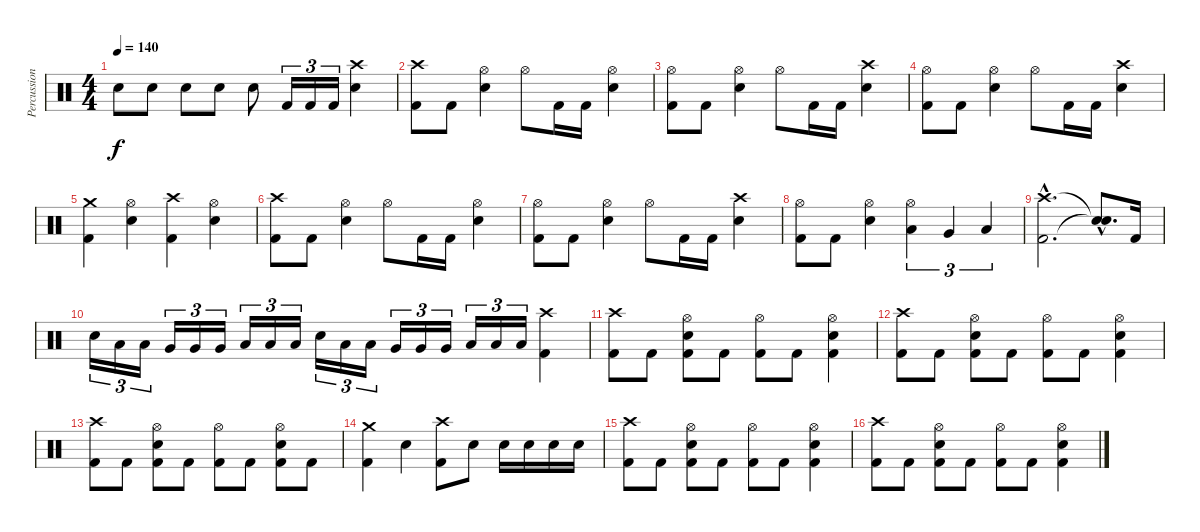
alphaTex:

\track ("Percussion" "Percussion") {instrument percussion}
\staff {score}
\articulation defaults
\ts (4 4)
\tempo 140
\clef neutral
\ks c "Snare (hit) 2".8{dy f} "Snare (hit) 2".8 "Snare (hit) 2".8 "Snare (hit) 2".8 "Snare (hit) 2".8 "Kick (hit) 2".16{tu (3 2)} "Kick (hit) 2".16{tu (3 2)} "Kick (hit) 2".16{tu (3 2)}
("Crash high (hit)" "Snare (hit) 2").4 |
("Crash high (hit)" "Kick (hit) 2").8 "Kick (hit) 2".8 ("Hi-Hat (open)" "Snare (hit) 2").4 "Hi-Hat (open)".8 "Kick (hit) 2".16 "Kick (hit) 2".16 ("Hi-Hat (open)" "Snare (hit) 2").4 |
("Hi-Hat (open)" "Kick (hit) 2").8 "Kick (hit) 2".8 ("Hi-Hat (open)" "Snare (hit) 2").4 "Hi-Hat (open)".8 "Kick (hit) 2".16 "Kick (hit) 2".16 ("Crash high (hit)" "Snare (hit) 2").4 |
("Hi-Hat (open)" "Kick (hit) 2").8 "Kick (hit) 2".8 ("Hi-Hat (open)" "Snare (hit) 2").4 "Hi-Hat (open)".8 "Kick (hit) 2".16 "Kick (hit) 2".16 ("Crash high (hit)" "Snare (hit) 2").4 |
("Crash medium (hit)" "Kick (hit) 2").4 ("Hi-Hat (open)" "Snare (hit) 2").4 ("Crash high (hit)" "Kick (hit) 2").4 ("Hi-Hat (open)" "Snare (hit) 2").4 |
("Crash high (hit)" "Kick (hit) 2").8 "Kick (hit) 2".8 ("Hi-Hat (open)" "Snare (hit) 2").4 "Hi-Hat (open)".8 "Kick (hit) 2".16 "Kick (hit) 2".16 ("Hi-Hat (open)" "Snare (hit) 2").4 |
("Hi-Hat (open)" "Kick (hit) 2").8 "Kick (hit) 2".8 ("Hi-Hat (open)" "Snare (hit) 2").4 "Hi-Hat (open)".8 "Kick (hit) 2".16 "Kick (hit) 2".16 ("Crash high (hit)" "Snare (hit) 2").4 |
("Hi-Hat (open)" "Kick (hit) 2").8 "Kick (hit) 2".8 ("Hi-Hat (open)" "Snare (hit) 2").4 ("Hi-Hat (open)" "Low Tom (hit)").4{tu (3 2)} "Very Low Tom (hit)".4{tu (3 2)} "Low Floor Tom (hit)".4{tu (3 2)} |
("Crash high (hit)"{hac} "Kick (hit) 2"{hac}).2{d} ("Snare (hit)"{hac t} "Snare (hit)"{hac t}).8{d} "Kick (hit) 2".16 |
"Snare (hit) 2".16{tu (3 2)} "Low Tom (hit)".16{tu (3 2)} "Low Tom (hit)".16{tu (3 2)} "Very Low Tom (hit)".16{tu (3 2)} "Very Low Tom (hit)".16{tu (3 2)} "Very Low Tom (hit)".16{tu (3 2)} "Low Floor Tom (hit)".16{tu (3 2)} "Low Floor Tom (hit)".16{tu (3 2)} "Low Floor Tom (hit)".16{tu (3 2)} "Snare (hit) 2".16{tu (3 2)} "Low Tom (hit)".16{tu (3 2)} "Low Tom (hit)".16{tu (3 2)} "Very Low Tom (hit)".16{tu (3 2)} "Very Low Tom (hit)".16{tu (3 2)} "Very Low Tom (hit)".16{tu (3 2)} "Low Floor Tom (hit)".16{tu (3 2)} "Low Floor Tom (hit)".16{tu (3 2)} "Low Floor Tom (hit)".16{tu (3 2)} ("Crash high (hit)" "Kick (hit) 2").4 |
("Crash high (hit)" "Kick (hit) 2").8 "Kick (hit) 2".8 ("Hi-Hat (open)" "Snare (hit) 2" "Kick (hit) 2").8 "Kick (hit) 2".8 ("Hi-Hat (open)" "Kick (hit) 2").8 "Kick (hit) 2".8 ("Hi-Hat (open)" "Snare (hit) 2" "Kick (hit) 2").4 |
("Crash high (hit)" "Kick (hit) 2").8 "Kick (hit) 2".8 ("Hi-Hat (open)" "Snare (hit) 2" "Kick (hit) 2").8 "Kick (hit) 2".8 ("Hi-Hat (open)" "Kick (hit) 2").8 "Kick (hit) 2".8 ("Hi-Hat (open)" "Snare (hit) 2" "Kick (hit) 2").4 |
("Crash high (hit)" "Kick (hit) 2").8 "Kick (hit) 2".8 ("Hi-Hat (open)" "Snare (hit) 2" "Kick (hit) 2").8 "Kick (hit) 2".8 ("Hi-Hat (open)" "Kick (hit) 2").8 "Kick (hit) 2".8 ("Hi-Hat (open)" "Snare (hit) 2" "Kick (hit) 2").8 "Kick (hit) 2".8 |
("Crash medium (hit)" "Kick (hit) 2").4 "Snare (hit) 2".4 ("Crash high (hit)" "Kick (hit) 2").8 "Snare (hit) 2".8 "Snare (hit) 2".16 "Snare (hit) 2".16 "Snare (hit) 2".16 "Snare (hit) 2".16 |
("Crash high (hit)" "Kick (hit) 2").8 "Kick (hit) 2".8 ("Hi-Hat (open)" "Snare (hit) 2" "Kick (hit) 2").8 "Kick (hit) 2".8 ("Hi-Hat (open)" "Kick (hit) 2").8 "Kick (hit) 2".8 ("Hi-Hat (open)" "Snare (hit) 2" "Kick (hit) 2").4 |
("Crash high (hit)" "Kick (hit) 2").8 "Kick (hit) 2".8 ("Hi-Hat (open)" "Snare (hit) 2" "Kick (hit) 2").8 "Kick (hit) 2".8 ("Hi-Hat (open)" "Kick (hit) 2").8 "Kick (hit) 2".8 ("Hi-Hat (open)" "Snare (hit) 2" "Kick (hit) 2").4
